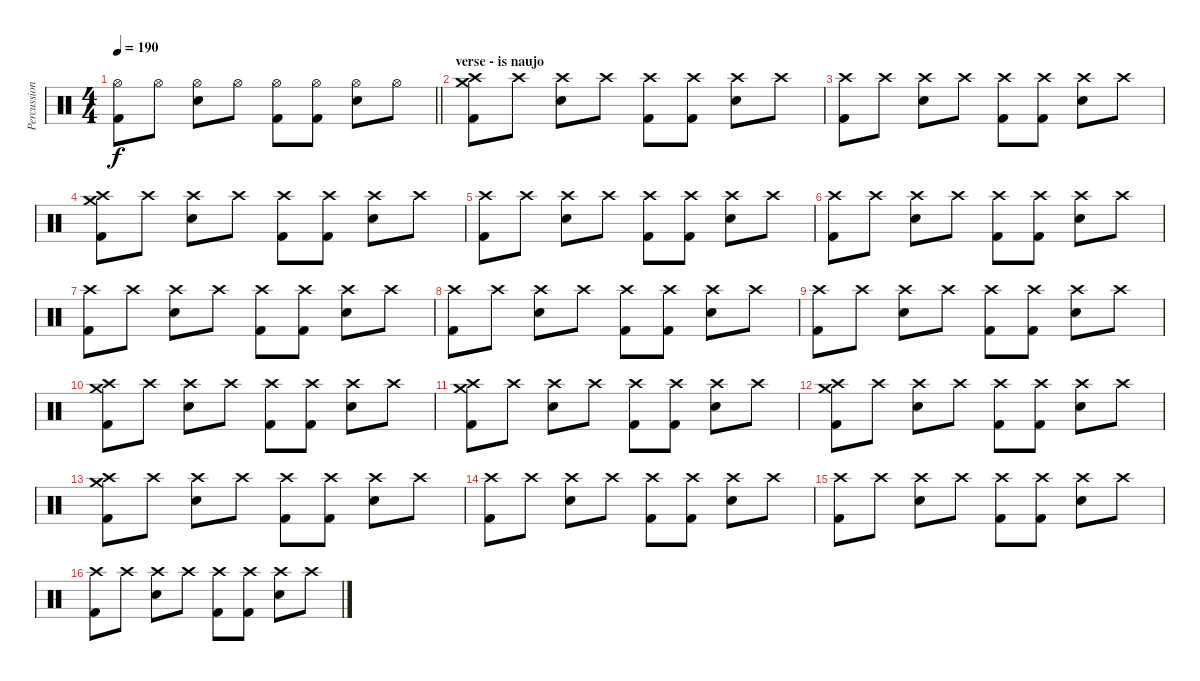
\track ("Percussion" "Percussion") {instrument percussion}
\staff {score}
\articulation defaults
\ts (4 4)
\tempo 190
\clef neutral
\barLineRight lightlight
\ks c
("Hi-Hat (open)" "Kick (hit) 2").8{dy f} "Hi-Hat (open)".8 ("Hi-Hat (open)" "Snare (hit) 2").8 "Hi-Hat (open)".8 ("Hi-Hat (open)" "Kick (hit) 2").8 ("Hi-Hat (open)" "Kick (hit) 2").8 ("Hi-Hat (open)" "Snare (hit) 2").8 "Hi-Hat (open)".8 |
\section ("" "verse - is naujo")
("Crash medium (hit)" "Crash high (hit)" "Kick (hit) 2").8 "Crash high (hit)".8 ("Crash high (hit)" "Snare (hit) 2").8 "Crash high (hit)".8 ("Crash high (hit)" "Kick (hit) 2").8 ("Crash high (hit)" "Kick (hit) 2").8 ("Crash high (hit)" "Snare (hit) 2").8 "Crash high (hit)".8 |
("Crash high (hit)" "Kick (hit) 2").8 "Crash high (hit)".8 ("Crash high (hit)" "Snare (hit) 2").8 "Crash high (hit)".8 ("Crash high (hit)" "Kick (hit) 2").8 ("Crash high (hit)" "Kick (hit) 2").8 ("Crash high (hit)" "Snare (hit) 2").8 "Crash high (hit)".8 |
("Crash medium (hit)" "Crash high (hit)" "Kick (hit) 2").8 "Crash high (hit)".8 ("Crash high (hit)" "Snare (hit) 2").8 "Crash high (hit)".8 ("Crash high (hit)" "Kick (hit) 2").8 ("Crash high (hit)" "Kick (hit) 2").8 ("Crash high (hit)" "Snare (hit) 2").8 "Crash high (hit)".8 |
("Crash high (hit)" "Kick (hit) 2").8 "Crash high (hit)".8 ("Crash high (hit)" "Snare (hit) 2").8 "Crash high (hit)".8 ("Crash high (hit)" "Kick (hit) 2").8 ("Crash high (hit)" "Kick (hit) 2").8 ("Crash high (hit)" "Snare (hit) 2").8 "Crash high (hit)".8 |
("Crash high (hit)" "Kick (hit) 2").8 "Crash high (hit)".8 ("Crash high (hit)" "Snare (hit) 2").8 "Crash high (hit)".8 ("Crash high (hit)" "Kick (hit) 2").8 ("Crash high (hit)" "Kick (hit) 2").8 ("Crash high (hit)" "Snare (hit) 2").8 "Crash high (hit)".8 |
("Crash high (hit)" "Kick (hit) 2").8 "Crash high (hit)".8 ("Crash high (hit)" "Snare (hit) 2").8 "Crash high (hit)".8 ("Crash high (hit)" "Kick (hit) 2").8 ("Crash high (hit)" "Kick (hit) 2").8 ("Crash high (hit)" "Snare (hit) 2").8 "Crash high (hit)".8 |
("Crash high (hit)" "Kick (hit) 2").8 "Crash high (hit)".8 ("Crash high (hit)" "Snare (hit) 2").8 "Crash high (hit)".8 ("Crash high (hit)" "Kick (hit) 2").8 ("Crash high (hit)" "Kick (hit) 2").8 ("Crash high (hit)" "Snare (hit) 2").8 "Crash high (hit)".8 |
("Crash high (hit)" "Kick (hit) 2").8 "Crash high (hit)".8 ("Crash high (hit)" "Snare (hit) 2").8 "Crash high (hit)".8 ("Crash high (hit)" "Kick (hit) 2").8 ("Crash high (hit)" "Kick (hit) 2").8 ("Crash high (hit)" "Snare (hit) 2").8 "Crash high (hit)".8 |
("Crash medium (hit)" "Crash high (hit)" "Kick (hit) 2").8 "Crash high (hit)".8 ("Crash high (hit)" "Snare (hit) 2").8 "Crash high (hit)".8 ("Crash high (hit)" "Kick (hit) 2").8 ("Crash high (hit)" "Kick (hit) 2").8 ("Crash high (hit)" "Snare (hit) 2").8 "Crash high (hit)".8 |
("Crash medium (hit)" "Crash high (hit)" "Kick (hit) 2").8 "Crash high (hit)".8 ("Crash high (hit)" "Snare (hit) 2").8 "Crash high (hit)".8 ("Crash high (hit)" "Kick (hit) 2").8 ("Crash high (hit)" "Kick (hit) 2").8 ("Crash high (hit)" "Snare (hit) 2").8 "Crash high (hit)".8 |
("Crash medium (hit)" "Crash high (hit)" "Kick (hit) 2").8 "Crash high (hit)".8 ("Crash high (hit)" "Snare (hit) 2").8 "Crash high (hit)".8 ("Crash high (hit)" "Kick (hit) 2").8 ("Crash high (hit)" "Kick (hit) 2").8 ("Crash high (hit)" "Snare (hit) 2").8 "Crash high (hit)".8 |
("Crash medium (hit)" "Crash high (hit)" "Kick (hit) 2").8 "Crash high (hit)".8 ("Crash high (hit)" "Snare (hit) 2").8 "Crash high (hit)".8 ("Crash high (hit)" "Kick (hit) 2").8 ("Crash high (hit)" "Kick (hit) 2").8 ("Crash high (hit)" "Snare (hit) 2").8 "Crash high (hit)".8 |
("Crash high (hit)" "Kick (hit) 2").8 "Crash high (hit)".8 ("Crash high (hit)" "Snare (hit) 2").8 "Crash high (hit)".8 ("Crash high (hit)" "Kick (hit) 2").8 ("Crash high (hit)" "Kick (hit) 2").8 ("Crash high (hit)" "Snare (hit) 2").8 "Crash high (hit)".8 |
("Crash high (hit)" "Kick (hit) 2").8 "Crash high (hit)".8 ("Crash high (hit)" "Snare (hit) 2").8 "Crash high (hit)".8 ("Crash high (hit)" "Kick (hit) 2").8 ("Crash high (hit)" "Kick (hit) 2").8 ("Crash high (hit)" "Snare (hit) 2").8 "Crash high (hit)".8 |
("Crash high (hit)" "Kick (hit) 2").8 "Crash high (hit)".8 ("Crash high (hit)" "Snare (hit) 2").8 "Crash high (hit)".8 ("Crash high (hit)" "Kick (hit) 2").8 ("Crash high (hit)" "Kick (hit) 2").8 ("Crash high (hit)" "Snare (hit) 2").8 "Crash high (hit)".8
